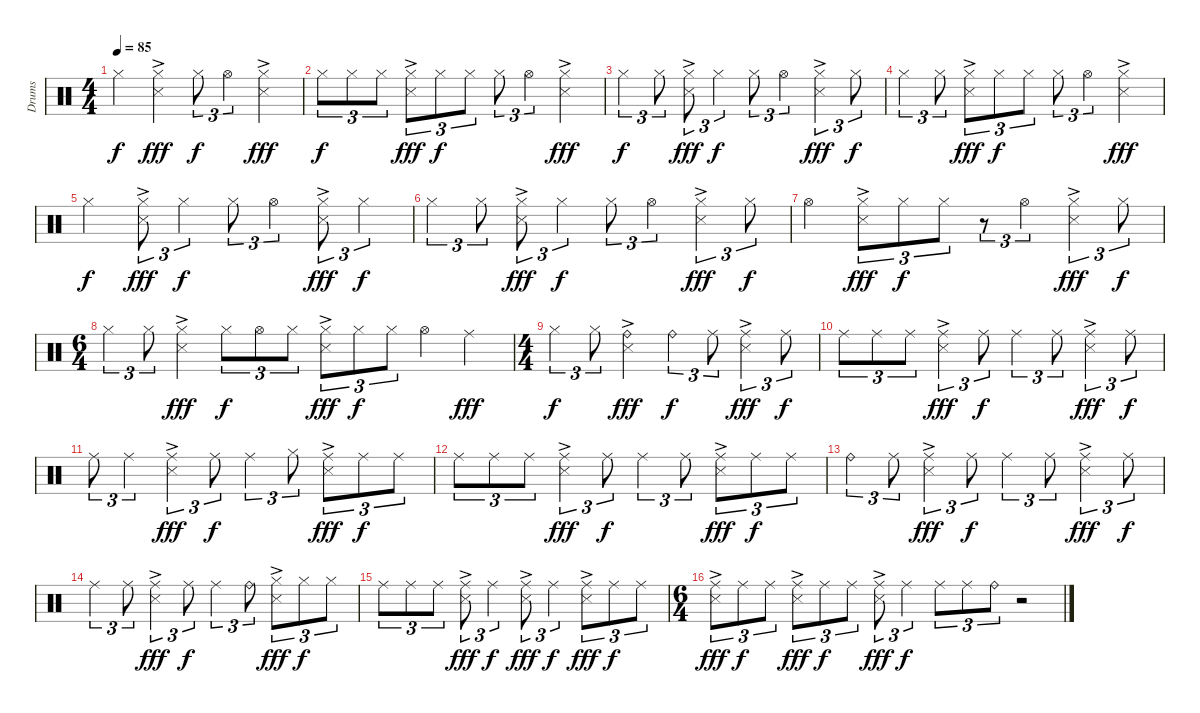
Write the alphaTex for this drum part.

\track ("Drums" "Drums") {instrument percussion}
\staff {score}
\articulation defaults
\ts (4 4)
\tempo 85
\clef neutral
\ks c "Hi-Hat (closed)".4{dy f}
("Hi-Hat (closed)" "Snare (side stick) 3"{ac}).4{dy fff} "Hi-Hat (closed)".8{tu (3 2) dy f} "Hi-Hat (open)".4{tu (3 2)} ("Hi-Hat (closed)" "Snare (side stick) 3"{ac}).4{dy fff} |
"Hi-Hat (closed)".8{tu (3 2) dy f} "Hi-Hat (closed)".8{tu (3 2)} "Hi-Hat (closed)".8{tu (3 2)} ("Hi-Hat (closed)" "Snare (side stick) 3"{ac}).8{tu (3 2) dy fff} "Hi-Hat (closed)".8{tu (3 2) dy f} "Hi-Hat (closed)".8{tu (3 2)} "Hi-Hat (closed)".8{tu (3 2)} "Hi-Hat (open)".4{tu (3 2)} ("Hi-Hat (closed)" "Snare (side stick) 3"{ac}).4{dy fff} |
"Hi-Hat (closed)".4{tu (3 2) dy f} "Hi-Hat (closed)".8{tu (3 2)} ("Hi-Hat (closed)" "Snare (side stick) 3"{ac}).8{tu (3 2) dy fff} "Hi-Hat (closed)".4{tu (3 2) dy f} "Hi-Hat (closed)".8{tu (3 2)} "Hi-Hat (open)".4{tu (3 2)} ("Hi-Hat (closed)" "Snare (side stick) 3"{ac}).4{tu (3 2) dy fff} "Hi-Hat (closed)".8{tu (3 2) dy f} |
"Hi-Hat (closed)".4{tu (3 2)} "Hi-Hat (closed)".8{tu (3 2)} ("Hi-Hat (closed)" "Snare (side stick) 3"{ac}).8{tu (3 2) dy fff} "Hi-Hat (closed)".8{tu (3 2) dy f} "Hi-Hat (closed)".8{tu (3 2)} "Hi-Hat (closed)".8{tu (3 2)} "Hi-Hat (open)".4{tu (3 2)} ("Hi-Hat (closed)" "Snare (side stick) 3"{ac}).4{dy fff} |
"Hi-Hat (closed)".4{dy f} ("Hi-Hat (closed)" "Snare (side stick) 3"{ac}).8{tu (3 2) dy fff} "Hi-Hat (closed)".4{tu (3 2) dy f} "Hi-Hat (closed)".8{tu (3 2)} "Hi-Hat (open)".4{tu (3 2)} ("Hi-Hat (closed)" "Snare (side stick) 3"{ac}).8{tu (3 2) dy fff} "Hi-Hat (closed)".4{tu (3 2) dy f} |
"Hi-Hat (closed)".4{tu (3 2)} "Hi-Hat (closed)".8{tu (3 2)} ("Hi-Hat (closed)" "Snare (side stick) 3"{ac}).8{tu (3 2) dy fff} "Hi-Hat (closed)".4{tu (3 2) dy f} "Hi-Hat (closed)".8{tu (3 2)} "Hi-Hat (open)".4{tu (3 2)} ("Hi-Hat (closed)" "Snare (side stick) 3"{ac}).4{tu (3 2) dy fff} "Hi-Hat (closed)".8{tu (3 2) dy f} |
"Hi-Hat (open)".4 ("Hi-Hat (closed)" "Snare (side stick) 3"{ac}).8{tu (3 2) dy fff} "Hi-Hat (closed)".8{tu (3 2) dy f} "Hi-Hat (closed)".8{tu (3 2)} r.8{tu (3 2)} "Hi-Hat (open)".4{tu (3 2)} ("Hi-Hat (closed)" "Snare (side stick) 3"{ac}).4{tu (3 2) dy fff} "Hi-Hat (closed)".8{tu (3 2) dy f} |
\ts (6 4)
"Hi-Hat (closed)".4{tu (3 2)} "Hi-Hat (closed)".8{tu (3 2)} ("Hi-Hat (closed)" "Snare (side stick) 3"{ac}).4{dy fff} "Hi-Hat (closed)".8{tu (3 2) dy f} "Hi-Hat (open)".8{tu (3 2)} "Hi-Hat (closed)".8{tu (3 2)} ("Hi-Hat (closed)" "Snare (side stick) 3"{ac}).8{tu (3 2) dy fff} "Hi-Hat (closed)".8{tu (3 2) dy f} "Hi-Hat (closed)".8{tu (3 2)} "Hi-Hat (open)".4 "Ride (middle)".4{dy fff} |
\ts (4 4)
"Hi-Hat (closed)".4{tu (3 2) dy f} "Hi-Hat (closed)".8{tu (3 2)} ("Ride (bell)" "Snare (side stick) 3"{ac}).4{dy fff} "Ride (bell)".4{tu (3 2) dy f} "Ride (middle)".8{tu (3 2)} ("Ride (middle)" "Snare (side stick) 3"{ac}).4{tu (3 2) dy fff} "Ride (middle)".8{tu (3 2) dy f} |
"Ride (middle)".8{tu (3 2)} "Ride (middle)".8{tu (3 2)} "Ride (middle)".8{tu (3 2)} ("Snare (side stick) 3"{ac} "Ride (middle)").4{tu (3 2) dy fff} "Ride (middle)".8{tu (3 2) dy f} "Ride (middle)".4{tu (3 2)} "Ride (middle)".8{tu (3 2)} ("Ride (middle)" "Snare (side stick) 3"{ac}).4{tu (3 2) dy fff} "Ride (middle)".8{tu (3 2) dy f} |
"Ride (middle)".8{tu (3 2)} "Ride (middle)".4{tu (3 2)} ("Snare (side stick) 3"{ac} "Ride (middle)").4{tu (3 2) dy fff} "Ride (middle)".8{tu (3 2) dy f} "Ride (middle)".4{tu (3 2)} "Hi-Hat (closed)".8{tu (3 2)} ("Ride (middle)" "Snare (side stick) 3"{ac}).8{tu (3 2) dy fff} "Ride (middle)".8{tu (3 2) dy f} "Ride (middle)".8{tu (3 2)} |
"Ride (middle)".8{tu (3 2)} "Ride (middle)".8{tu (3 2)} "Ride (middle)".8{tu (3 2)} ("Snare (side stick) 3"{ac} "Ride (middle)").4{tu (3 2) dy fff} "Ride (middle)".8{tu (3 2) dy f} "Ride (middle)".4{tu (3 2)} "Ride (middle)".8{tu (3 2)} ("Ride (middle)" "Snare (side stick) 3"{ac}).8{tu (3 2) dy fff} "Ride (middle)".8{tu (3 2) dy f} "Ride (middle)".8{tu (3 2)} |
"Ride (bell)".4{tu (3 2)} "Ride (middle)".8{tu (3 2)} ("Snare (side stick) 3"{ac} "Ride (middle)").4{tu (3 2) dy fff} "Ride (middle)".8{tu (3 2) dy f} "Ride (middle)".4{tu (3 2)} "Ride (middle)".8{tu (3 2)} ("Ride (middle)" "Snare (side stick) 3"{ac}).4{tu (3 2) dy fff} "Ride (middle)".8{tu (3 2) dy f} |
"Ride (middle)".4{tu (3 2)} "Ride (middle)".8{tu (3 2)} ("Snare (side stick) 3"{ac} "Ride (middle)").4{tu (3 2) dy fff} "Ride (middle)".8{tu (3 2) dy f} "Ride (middle)".4{tu (3 2)} "Ride (bell)".8{tu (3 2)} ("Hi-Hat (closed)" "Snare (side stick) 3"{ac}).8{tu (3 2) dy fff} "Hi-Hat (closed)".8{tu (3 2) dy f} "Hi-Hat (closed)".8{tu (3 2)} |
"Ride (middle)".8{tu (3 2)} "Ride (middle)".8{tu (3 2)} "Ride (middle)".8{tu (3 2)} ("Ride (middle)" "Snare (side stick) 3"{ac}).8{tu (3 2) dy fff} "Ride (middle)".4{tu (3 2) dy f} ("Ride (middle)" "Snare (side stick) 3"{ac}).8{tu (3 2) dy fff} "Ride (middle)".4{tu (3 2) dy f} ("Ride (middle)" "Snare (side stick) 3"{ac}).8{tu (3 2) dy fff} "Ride (middle)".8{tu (3 2) dy f} "Ride (middle)".8{tu (3 2)} |
\ts (6 4)
("Ride (middle)" "Snare (side stick) 3"{ac}).8{tu (3 2) dy fff} "Ride (middle)".8{tu (3 2) dy f} "Ride (middle)".8{tu (3 2)} ("Ride (middle)" "Snare (side stick) 3"{ac}).8{tu (3 2) dy fff} "Ride (middle)".8{tu (3 2) dy f} "Ride (middle)".8{tu (3 2)} ("Ride (middle)" "Snare (side stick) 3"{ac}).8{tu (3 2) dy fff} "Ride (middle)".4{tu (3 2) dy f} "Ride (middle)".8{tu (3 2)} "Ride (middle)".8{tu (3 2)} "Ride (bell)".8{tu (3 2)} r.2
